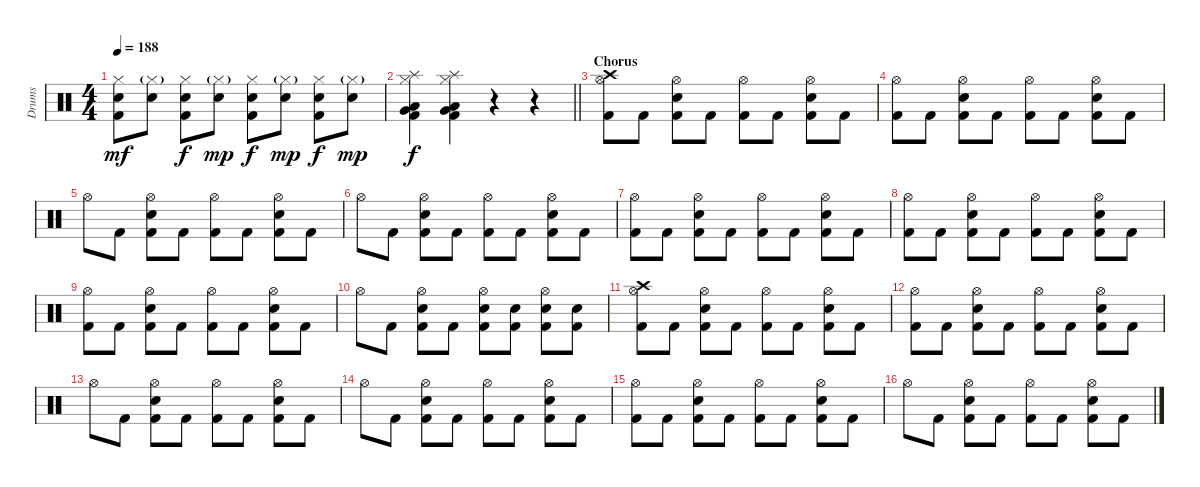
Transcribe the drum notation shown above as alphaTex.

\track ("Drums" "Drums") {instrument percussion}
\staff {score}
\articulation defaults
\ts (4 4)
\tempo 188
\clef neutral
\ks c
("Hi-Hat (closed)" "Snare (hit) 2" "Kick (hit) 2").8{dy mf} ("Hi-Hat (closed)"{g} "Snare (hit) 2").8 ("Hi-Hat (closed)" "Snare (hit) 2" "Kick (hit) 2").8{dy f} ("Hi-Hat (closed)"{g} "Snare (hit) 2").8{dy mp} ("Hi-Hat (closed)" "Snare (hit) 2" "Kick (hit) 2").8{dy f} ("Hi-Hat (closed)"{g} "Snare (hit) 2").8{dy mp} ("Hi-Hat (closed)" "Snare (hit) 2" "Kick (hit) 2").8{dy f} ("Hi-Hat (closed)"{g} "Snare (hit) 2").8{dy mp} |
\barLineRight lightlight
("Splash (hit)" "Hi-Hat (closed)" "Very Low Tom (hit)" "Low Floor Tom (hit)" "Kick (hit) 2").4{dy f} ("Splash (hit)" "Hi-Hat (closed)" "Very Low Tom (hit)" "Low Floor Tom (hit)" "Kick (hit) 2").4 r.4 r.4 |
\section ("" "Chorus")
("Crash high (hit)" "Hi-Hat (open)" "Kick (hit) 2").8 "Kick (hit) 2".8 ("Hi-Hat (open)" "Snare (hit) 2" "Kick (hit) 2").8 "Kick (hit) 2".8 ("Hi-Hat (open)" "Kick (hit) 2").8 "Kick (hit) 2".8 ("Hi-Hat (open)" "Snare (hit) 2" "Kick (hit) 2").8 "Kick (hit) 2".8 |
("Hi-Hat (open)" "Kick (hit) 2").8 "Kick (hit) 2".8 ("Hi-Hat (open)" "Snare (hit) 2" "Kick (hit) 2").8 "Kick (hit) 2".8 ("Hi-Hat (open)" "Kick (hit) 2").8 "Kick (hit) 2".8 ("Hi-Hat (open)" "Snare (hit) 2" "Kick (hit) 2").8 "Kick (hit) 2".8 |
"Hi-Hat (open)".8 "Kick (hit) 2".8 ("Hi-Hat (open)" "Snare (hit) 2" "Kick (hit) 2").8 "Kick (hit) 2".8 ("Hi-Hat (open)" "Kick (hit) 2").8 "Kick (hit) 2".8 ("Hi-Hat (open)" "Snare (hit) 2" "Kick (hit) 2").8 "Kick (hit) 2".8 |
"Hi-Hat (open)".8 "Kick (hit) 2".8 ("Hi-Hat (open)" "Snare (hit) 2" "Kick (hit) 2").8 "Kick (hit) 2".8 ("Hi-Hat (open)" "Kick (hit) 2").8 "Kick (hit) 2".8 ("Hi-Hat (open)" "Snare (hit) 2" "Kick (hit) 2").8 "Kick (hit) 2".8 |
("Hi-Hat (open)" "Kick (hit) 2").8 "Kick (hit) 2".8 ("Hi-Hat (open)" "Snare (hit) 2" "Kick (hit) 2").8 "Kick (hit) 2".8 ("Hi-Hat (open)" "Kick (hit) 2").8 "Kick (hit) 2".8 ("Hi-Hat (open)" "Snare (hit) 2" "Kick (hit) 2").8 "Kick (hit) 2".8 |
("Hi-Hat (open)" "Kick (hit) 2").8 "Kick (hit) 2".8 ("Hi-Hat (open)" "Snare (hit) 2" "Kick (hit) 2").8 "Kick (hit) 2".8 ("Hi-Hat (open)" "Kick (hit) 2").8 "Kick (hit) 2".8 ("Hi-Hat (open)" "Snare (hit) 2" "Kick (hit) 2").8 "Kick (hit) 2".8 |
("Hi-Hat (open)" "Kick (hit) 2").8 "Kick (hit) 2".8 ("Hi-Hat (open)" "Snare (hit) 2" "Kick (hit) 2").8 "Kick (hit) 2".8 ("Hi-Hat (open)" "Kick (hit) 2").8 "Kick (hit) 2".8 ("Hi-Hat (open)" "Snare (hit) 2" "Kick (hit) 2").8 "Kick (hit) 2".8 |
"Hi-Hat (open)".8 "Kick (hit) 2".8 ("Hi-Hat (open)" "Snare (hit) 2" "Kick (hit) 2").8 "Kick (hit) 2".8 ("Hi-Hat (open)" "Snare (hit) 2" "Kick (hit) 2").8 ("Snare (hit) 2" "Kick (hit) 2").8 ("Hi-Hat (open)" "Snare (hit) 2" "Kick (hit) 2").8 ("Snare (hit) 2" "Kick (hit) 2").8 |
("Crash high (hit)" "Hi-Hat (open)" "Kick (hit) 2").8 "Kick (hit) 2".8 ("Hi-Hat (open)" "Snare (hit) 2" "Kick (hit) 2").8 "Kick (hit) 2".8 ("Hi-Hat (open)" "Kick (hit) 2").8 "Kick (hit) 2".8 ("Hi-Hat (open)" "Snare (hit) 2" "Kick (hit) 2").8 "Kick (hit) 2".8 |
("Hi-Hat (open)" "Kick (hit) 2").8 "Kick (hit) 2".8 ("Hi-Hat (open)" "Snare (hit) 2" "Kick (hit) 2").8 "Kick (hit) 2".8 ("Hi-Hat (open)" "Kick (hit) 2").8 "Kick (hit) 2".8 ("Hi-Hat (open)" "Snare (hit) 2" "Kick (hit) 2").8 "Kick (hit) 2".8 |
"Hi-Hat (open)".8 "Kick (hit) 2".8 ("Hi-Hat (open)" "Snare (hit) 2" "Kick (hit) 2").8 "Kick (hit) 2".8 ("Hi-Hat (open)" "Kick (hit) 2").8 "Kick (hit) 2".8 ("Hi-Hat (open)" "Snare (hit) 2" "Kick (hit) 2").8 "Kick (hit) 2".8 |
"Hi-Hat (open)".8 "Kick (hit) 2".8 ("Hi-Hat (open)" "Snare (hit) 2" "Kick (hit) 2").8 "Kick (hit) 2".8 ("Hi-Hat (open)" "Kick (hit) 2").8 "Kick (hit) 2".8 ("Hi-Hat (open)" "Snare (hit) 2" "Kick (hit) 2").8 "Kick (hit) 2".8 |
("Hi-Hat (open)" "Kick (hit) 2").8 "Kick (hit) 2".8 ("Hi-Hat (open)" "Snare (hit) 2" "Kick (hit) 2").8 "Kick (hit) 2".8 ("Hi-Hat (open)" "Kick (hit) 2").8 "Kick (hit) 2".8 ("Hi-Hat (open)" "Snare (hit) 2" "Kick (hit) 2").8 "Kick (hit) 2".8 |
"Hi-Hat (open)".8 "Kick (hit) 2".8 ("Hi-Hat (open)" "Snare (hit) 2" "Kick (hit) 2").8 "Kick (hit) 2".8 ("Hi-Hat (open)" "Kick (hit) 2").8 "Kick (hit) 2".8 ("Hi-Hat (open)" "Snare (hit) 2" "Kick (hit) 2").8 "Kick (hit) 2".8
